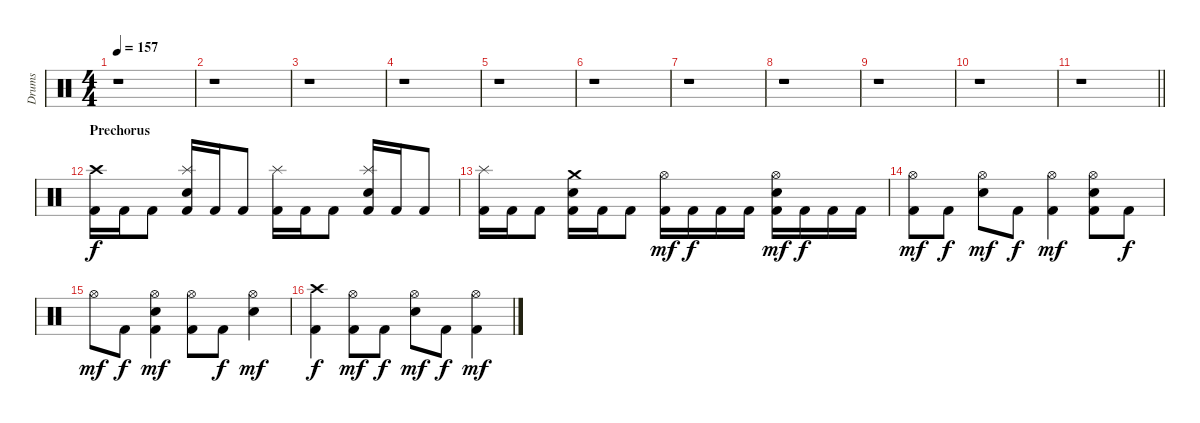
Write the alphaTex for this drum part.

\track ("Drums" "Drums") {instrument percussion}
\staff {score}
\articulation defaults
\ts (4 4)
\tempo 157
\clef neutral
\ks c
r.1{dy f} |
r.1 |
r.1 |
r.1 |
r.1 |
r.1 |
r.1 |
r.1 |
r.1 |
r.1 |
\barLineRight lightlight
r.1 |
\section ("" "Prechorus")
("Kick (hit) 2" "Crash high (hit)").16 "Kick (hit) 2".16 "Kick (hit) 2".8 ("Kick (hit) 2" "Splash (hit)" "Electric Snare (hit)").16 "Kick (hit) 2".16 "Kick (hit) 2".8 ("Kick (hit) 2" "Splash (hit)").16 "Kick (hit) 2".16 "Kick (hit) 2".8 ("Kick (hit) 2" "Splash (hit)" "Electric Snare (hit)").16 "Kick (hit) 2".16 "Kick (hit) 2".8 |
("Kick (hit) 2" "Splash (hit)").16 "Kick (hit) 2".16 "Kick (hit) 2".8 ("Kick (hit) 2" "Crash medium (hit)" "Electric Snare (hit)").16 "Kick (hit) 2".16 "Kick (hit) 2".8 ("Kick (hit) 2" "Hi-Hat (open)").16{dy mf} "Kick (hit) 2".16{dy f} "Kick (hit) 2".16 "Kick (hit) 2".16 ("Kick (hit) 2" "Hi-Hat (open)" "Electric Snare (hit)").16{dy mf} "Kick (hit) 2".16{dy f} "Kick (hit) 2".16 "Kick (hit) 2".16 |
("Kick (hit) 2" "Hi-Hat (open)").8{dy mf} "Kick (hit) 2".8{dy f} ("Hi-Hat (open)" "Electric Snare (hit)").8{dy mf} "Kick (hit) 2".8{dy f} ("Kick (hit) 2" "Hi-Hat (open)").4{dy mf} ("Kick (hit) 2" "Hi-Hat (open)" "Electric Snare (hit)").8 "Kick (hit) 2".8{dy f} |
"Hi-Hat (open)".8{dy mf} "Kick (hit) 2".8{dy f} ("Kick (hit) 2" "Hi-Hat (open)" "Electric Snare (hit)").4{dy mf} ("Kick (hit) 2" "Hi-Hat (open)").8 "Kick (hit) 2".8{dy f} ("Hi-Hat (open)" "Electric Snare (hit)").4{dy mf} |
("Kick (hit) 2" "Crash high (hit)").4{dy f} ("Kick (hit) 2" "Hi-Hat (open)").8{dy mf} "Kick (hit) 2".8{dy f} ("Hi-Hat (open)" "Electric Snare (hit)").8{dy mf} "Kick (hit) 2".8{dy f} ("Kick (hit) 2" "Hi-Hat (open)").4{dy mf}
